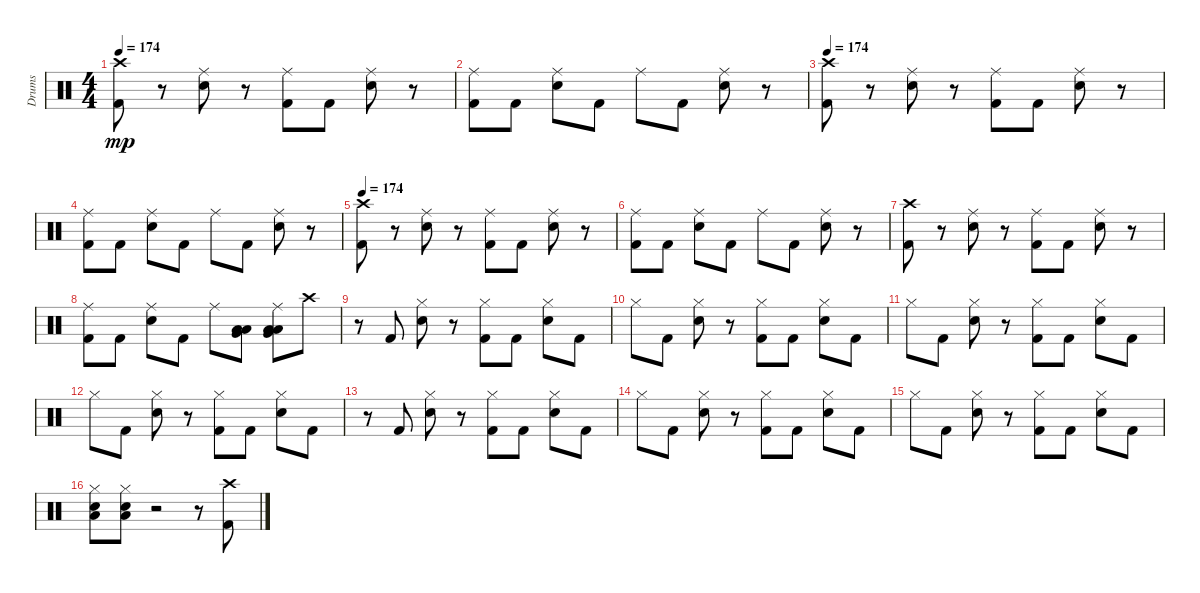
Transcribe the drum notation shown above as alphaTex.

\track ("Drums" "Drums") {instrument percussion}
\staff {score}
\articulation defaults
\ts (4 4)
\tempo 174
\clef neutral
\ks c
("Kick (hit) 2" "Crash high (hit)").8{dy mp} r.8 ("Ride (middle)" "Snare (hit) 2").8 r.8 ("Ride (middle)" "Kick (hit) 2").8 "Kick (hit) 2".8 ("Snare (hit) 2" "Ride (middle)").8 r.8 |
("Ride (middle)" "Kick (hit) 2").8 "Kick (hit) 2".8 ("Snare (hit) 2" "Ride (middle)").8 "Kick (hit) 2".8 "Ride (middle)".8 "Kick (hit) 2".8 ("Ride (middle)" "Snare (hit) 2").8 r.8 |
\tempo 174
("Crash high (hit)" "Kick (hit) 2").8 r.8 ("Ride (middle)" "Snare (hit) 2").8 r.8 ("Kick (hit) 2" "Ride (middle)").8 "Kick (hit) 2".8 ("Snare (hit) 2" "Ride (middle)").8 r.8 |
("Kick (hit) 2" "Ride (middle)").8 "Kick (hit) 2".8 ("Ride (middle)" "Snare (hit) 2").8 "Kick (hit) 2".8 "Ride (middle)".8 "Kick (hit) 2".8 ("Ride (middle)" "Snare (hit) 2").8 r.8 |
\tempo 174
("Kick (hit) 2" "Crash high (hit)").8 r.8 ("Ride (middle)" "Snare (hit) 2").8 r.8 ("Ride (middle)" "Kick (hit) 2").8 "Kick (hit) 2".8 ("Snare (hit) 2" "Ride (middle)").8 r.8 |
("Kick (hit) 2" "Ride (middle)").8 "Kick (hit) 2".8 ("Snare (hit) 2" "Ride (middle)").8 "Kick (hit) 2".8 "Ride (middle)".8 "Kick (hit) 2".8 ("Snare (hit) 2" "Ride (middle)").8 r.8 |
("Crash high (hit)" "Kick (hit) 2").8 r.8 ("Ride (middle)" "Snare (hit) 2").8 r.8 ("Ride (middle)" "Kick (hit) 2").8 "Kick (hit) 2".8 ("Snare (hit) 2" "Ride (middle)").8 r.8 |
("Kick (hit) 2" "Ride (middle)").8 "Kick (hit) 2".8 ("Ride (middle)" "Snare (hit) 2").8 "Kick (hit) 2".8 "Ride (middle)".8 ("Low Floor Tom (hit)" "Very Low Tom (hit)" "Low Tom (hit)").8 ("Ride (middle)" "Low Tom (hit)" "Low Floor Tom (hit)" "Very Low Tom (hit)").8 "Crash high (hit)".8 |
r.8 "Kick (hit) 2".8 ("Hi-Hat (closed)" "Snare (hit) 2").8 r.8 ("Hi-Hat (closed)" "Kick (hit) 2").8 "Kick (hit) 2".8 ("Snare (hit) 2" "Hi-Hat (closed)").8 "Kick (hit) 2".8 |
"Hi-Hat (closed)".8 "Kick (hit) 2".8 ("Snare (hit) 2" "Hi-Hat (closed)").8 r.8 ("Kick (hit) 2" "Hi-Hat (closed)").8 "Kick (hit) 2".8 ("Hi-Hat (closed)" "Snare (hit) 2").8 "Kick (hit) 2".8 |
"Hi-Hat (closed)".8 "Kick (hit) 2".8 ("Hi-Hat (closed)" "Snare (hit) 2").8 r.8 ("Kick (hit) 2" "Hi-Hat (closed)").8 "Kick (hit) 2".8 ("Snare (hit) 2" "Hi-Hat (closed)").8 "Kick (hit) 2".8 |
"Hi-Hat (closed)".8 "Kick (hit) 2".8 ("Hi-Hat (closed)" "Snare (hit) 2").8 r.8 ("Hi-Hat (closed)" "Kick (hit) 2").8 "Kick (hit) 2".8 ("Snare (hit) 2" "Hi-Hat (closed)").8 "Kick (hit) 2".8 |
r.8 "Kick (hit) 2".8 ("Hi-Hat (closed)" "Snare (hit) 2").8 r.8 ("Hi-Hat (closed)" "Kick (hit) 2").8 "Kick (hit) 2".8 ("Hi-Hat (closed)" "Snare (hit) 2").8 "Kick (hit) 2".8 |
"Hi-Hat (closed)".8 "Kick (hit) 2".8 ("Hi-Hat (closed)" "Snare (hit) 2").8 r.8 ("Kick (hit) 2" "Hi-Hat (closed)").8 "Kick (hit) 2".8 ("Hi-Hat (closed)" "Snare (hit) 2").8 "Kick (hit) 2".8 |
"Hi-Hat (closed)".8 "Kick (hit) 2".8 ("Hi-Hat (closed)" "Snare (hit) 2").8 r.8 ("Hi-Hat (closed)" "Kick (hit) 2").8 "Kick (hit) 2".8 ("Snare (hit) 2" "Hi-Hat (closed)").8 "Kick (hit) 2".8 |
("Hi-Hat (closed)" "Snare (hit) 2" "Low Tom (hit)").8 ("Low Tom (hit)" "Hi-Hat (closed)" "Snare (hit) 2").8 r.2 r.8 ("Kick (hit) 2" "Crash high (hit)").8
